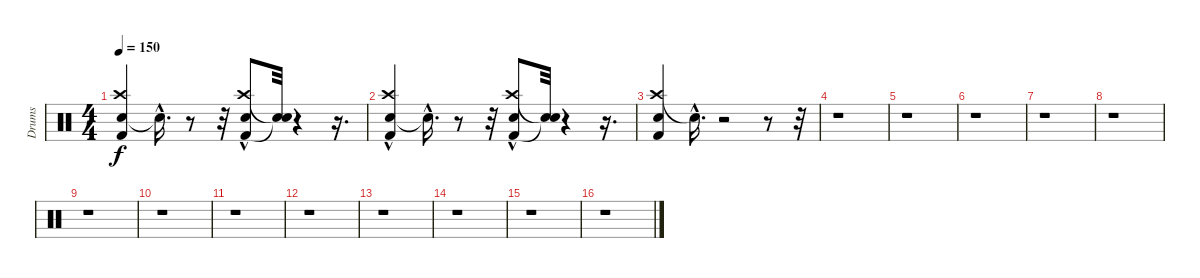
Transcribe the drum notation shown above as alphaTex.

\track ("Drums" "Drums") {instrument percussion}
\staff {score}
\articulation defaults
\ts (4 4)
\tempo 150
\clef neutral
\ks c
("Snare (hit) 2" "Crash high (hit)" "Kick (hit) 2").4{dy f} "Snare (hit)"{hac t}.16{d} r.8 r.32 ("Kick (hit) 2" "Crash high (hit)"{hac} "Snare (hit) 2").8 ("Snare (hit)"{t} "Snare (hit)"{t}).32 r.4 r.16{d} |
("Snare (hit) 2"{hac} "Kick (hit) 2" "Crash high (hit)").4 "Snare (hit)"{hac t}.16{d} r.8 r.32 ("Kick (hit) 2" "Crash high (hit)"{hac} "Snare (hit) 2").8 ("Snare (hit)"{t} "Snare (hit)"{t}).32 r.4 r.16{d} |
("Crash high (hit)" "Kick (hit) 2" "Snare (hit) 2").4 "Snare (hit)"{hac t}.16{d} r.2 r.8 r.32 |
r.1 |
r.1 |
r.1 |
r.1 |
r.1 |
r.1 |
r.1 |
r.1 |
r.1 |
r.1 |
r.1 |
r.1 |
r.1
